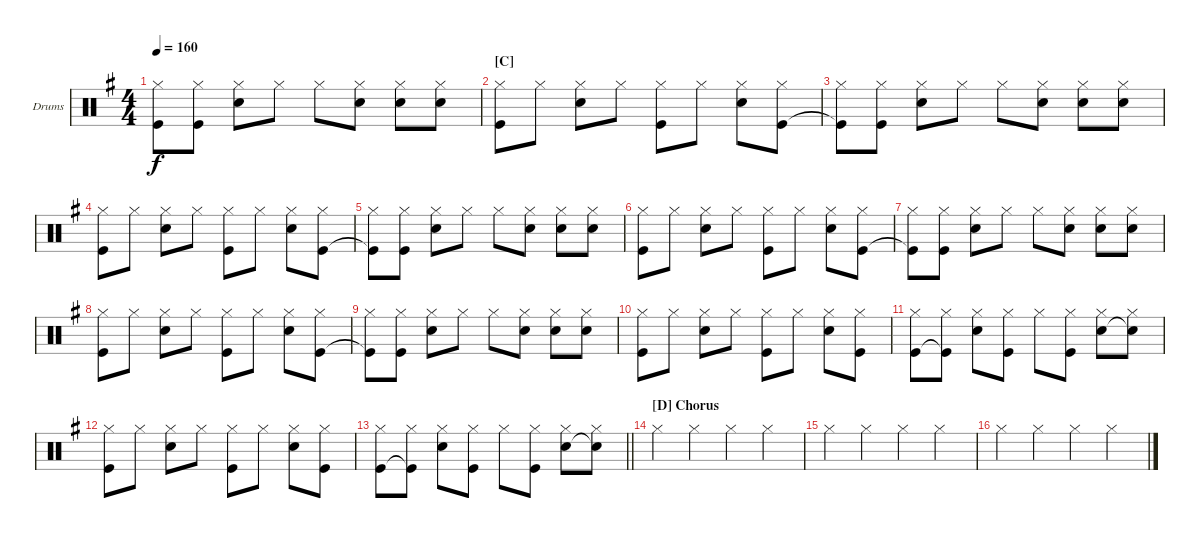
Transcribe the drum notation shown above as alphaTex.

\bracketExtendMode groupsimilarinstruments
\firstSystemTrackNameOrientation horizontal
\otherSystemsTrackNameOrientation horizontal
\track ("Fabrizio Moretti" "Drums") {instrument percussion}
\staff {score}
\articulation defaults
\ts (4 4)
\tempo 160
\clef neutral
\ks g
("Hi-Hat (closed)" "Kick (hit)"{t}).8{dy f} ("Hi-Hat (closed)" "Kick (hit)").8 ("Hi-Hat (closed)" "Snare (hit) 2").8 "Hi-Hat (closed)".8 "Hi-Hat (closed)".8 ("Hi-Hat (closed)" "Snare (hit) 2").8 ("Hi-Hat (closed)" "Snare (hit) 2").8 ("Hi-Hat (closed)" "Snare (hit) 2").8 |
\section ("C" "")
("Hi-Hat (closed)" "Kick (hit)").8 "Hi-Hat (closed)".8 ("Hi-Hat (closed)" "Snare (hit) 2").8 "Hi-Hat (closed)".8 ("Hi-Hat (closed)" "Kick (hit)").8 "Hi-Hat (closed)".8 ("Hi-Hat (closed)" "Snare (hit) 2").8 ("Hi-Hat (closed)" "Kick (hit)").8 |
("Hi-Hat (closed)" "Kick (hit)"{t}).8 ("Hi-Hat (closed)" "Kick (hit)").8 ("Hi-Hat (closed)" "Snare (hit) 2").8 "Hi-Hat (closed)".8 "Hi-Hat (closed)".8 ("Hi-Hat (closed)" "Snare (hit) 2").8 ("Hi-Hat (closed)" "Snare (hit) 2").8 ("Hi-Hat (closed)" "Snare (hit) 2").8 |
("Hi-Hat (closed)" "Kick (hit)").8 "Hi-Hat (closed)".8 ("Hi-Hat (closed)" "Snare (hit) 2").8 "Hi-Hat (closed)".8 ("Hi-Hat (closed)" "Kick (hit)").8 "Hi-Hat (closed)".8 ("Hi-Hat (closed)" "Snare (hit) 2").8 ("Hi-Hat (closed)" "Kick (hit)").8 |
("Hi-Hat (closed)" "Kick (hit)"{t}).8 ("Hi-Hat (closed)" "Kick (hit)").8 ("Hi-Hat (closed)" "Snare (hit) 2").8 "Hi-Hat (closed)".8 "Hi-Hat (closed)".8 ("Hi-Hat (closed)" "Snare (hit) 2").8 ("Hi-Hat (closed)" "Snare (hit) 2").8 ("Hi-Hat (closed)" "Snare (hit) 2").8 |
("Hi-Hat (closed)" "Kick (hit)").8 "Hi-Hat (closed)".8 ("Hi-Hat (closed)" "Snare (hit) 2").8 "Hi-Hat (closed)".8 ("Hi-Hat (closed)" "Kick (hit)").8 "Hi-Hat (closed)".8 ("Hi-Hat (closed)" "Snare (hit) 2").8 ("Hi-Hat (closed)" "Kick (hit)").8 |
("Hi-Hat (closed)" "Kick (hit)"{t}).8 ("Hi-Hat (closed)" "Kick (hit)").8 ("Hi-Hat (closed)" "Snare (hit) 2").8 "Hi-Hat (closed)".8 "Hi-Hat (closed)".8 ("Hi-Hat (closed)" "Snare (hit) 2").8 ("Hi-Hat (closed)" "Snare (hit) 2").8 ("Hi-Hat (closed)" "Snare (hit) 2").8 |
("Hi-Hat (closed)" "Kick (hit)").8 "Hi-Hat (closed)".8 ("Hi-Hat (closed)" "Snare (hit) 2").8 "Hi-Hat (closed)".8 ("Hi-Hat (closed)" "Kick (hit)").8 "Hi-Hat (closed)".8 ("Hi-Hat (closed)" "Snare (hit) 2").8 ("Hi-Hat (closed)" "Kick (hit)").8 |
("Hi-Hat (closed)" "Kick (hit)"{t}).8 ("Hi-Hat (closed)" "Kick (hit)").8 ("Hi-Hat (closed)" "Snare (hit) 2").8 "Hi-Hat (closed)".8 "Hi-Hat (closed)".8 ("Hi-Hat (closed)" "Snare (hit) 2").8 ("Hi-Hat (closed)" "Snare (hit) 2").8 ("Hi-Hat (closed)" "Snare (hit) 2").8 |
("Hi-Hat (closed)" "Kick (hit)").8 "Hi-Hat (closed)".8 ("Hi-Hat (closed)" "Snare (hit) 2").8 "Hi-Hat (closed)".8 ("Hi-Hat (closed)" "Kick (hit)").8 "Hi-Hat (closed)".8 ("Hi-Hat (closed)" "Snare (hit) 2").8 ("Hi-Hat (closed)" "Kick (hit)").8 |
("Hi-Hat (closed)" "Kick (hit)").8 ("Hi-Hat (closed)" "Kick (hit)"{t}).8 ("Hi-Hat (closed)" "Snare (hit) 2").8 ("Hi-Hat (closed)" "Kick (hit)").8 "Hi-Hat (closed)".8 ("Hi-Hat (closed)" "Kick (hit)").8 ("Hi-Hat (closed)" "Snare (hit) 2").8 ("Hi-Hat (closed)" "Snare (hit) 2"{t}).8 |
("Hi-Hat (closed)" "Kick (hit)").8 "Hi-Hat (closed)".8 ("Hi-Hat (closed)" "Snare (hit) 2").8 "Hi-Hat (closed)".8 ("Hi-Hat (closed)" "Kick (hit)").8 "Hi-Hat (closed)".8 ("Hi-Hat (closed)" "Snare (hit) 2").8 ("Hi-Hat (closed)" "Kick (hit)").8 |
\barLineRight lightlight
("Hi-Hat (closed)" "Kick (hit)").8 ("Hi-Hat (closed)" "Kick (hit)"{t}).8 ("Hi-Hat (closed)" "Snare (hit) 2").8 ("Hi-Hat (closed)" "Kick (hit)").8 "Hi-Hat (closed)".8 ("Hi-Hat (closed)" "Kick (hit)").8 ("Hi-Hat (closed)" "Snare (hit) 2").8 ("Hi-Hat (closed)" "Snare (hit) 2"{t}).8 |
\section ("D" "Chorus")
"Hi-Hat (closed)".4 "Hi-Hat (closed)".4 "Hi-Hat (closed)".4 "Hi-Hat (closed)".4 |
"Hi-Hat (closed)".4 "Hi-Hat (closed)".4 "Hi-Hat (closed)".4 "Hi-Hat (closed)".4 |
"Hi-Hat (closed)".4 "Hi-Hat (closed)".4 "Hi-Hat (closed)".4 "Hi-Hat (closed)".4
